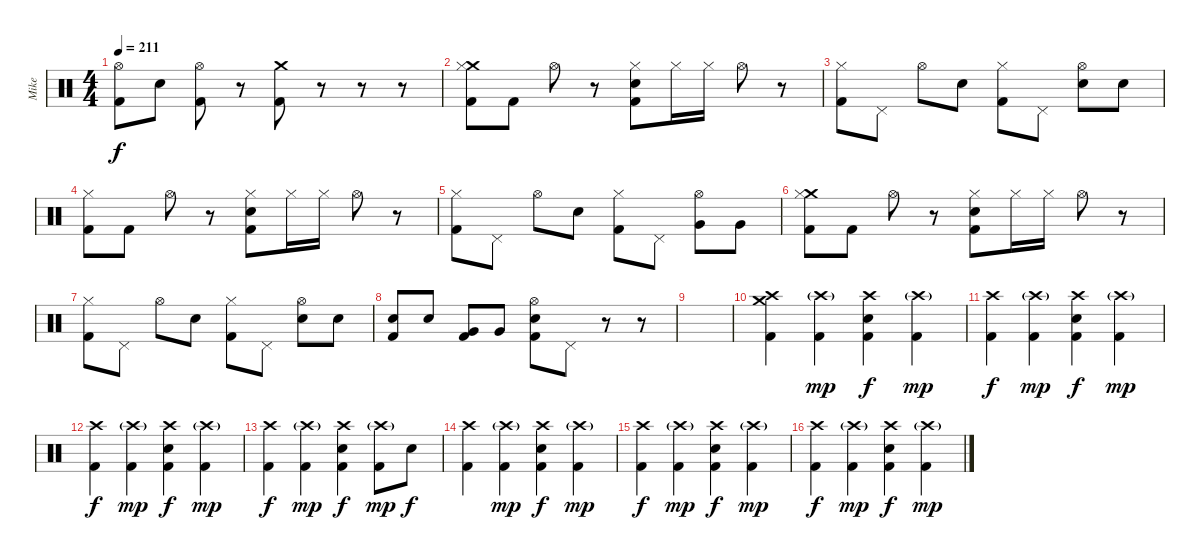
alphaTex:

\track ("Mike" "Mike") {instrument percussion}
\staff {score}
\articulation defaults
\ts (4 4)
\tempo 211
\clef neutral
\ks c
("Hi-Hat (open)" "Kick (hit) 2").8{dy f} "Electric Snare (hit)".8 ("Hi-Hat (open)" "Kick (hit) 2").8 r.8 ("Crash medium (hit)" "Kick (hit) 2").8 r.8 r.8 r.8 |
("Crash medium (hit)" "Hi-Hat (closed)" "Kick (hit) 2").8 "Kick (hit) 2".8 "Hi-Hat (open)".8 r.8 ("Hi-Hat (closed)" "Electric Snare (hit)" "Kick (hit) 2").8 "Hi-Hat (closed)".16 "Hi-Hat (closed)".16 "Hi-Hat (open)".8 r.8 |
("Hi-Hat (closed)" "Kick (hit) 2").8 "Pedal Hi-Hat (hit)".8 "Hi-Hat (open)".8 "Electric Snare (hit)".8 ("Hi-Hat (closed)" "Kick (hit) 2").8 "Pedal Hi-Hat (hit)".8 ("Hi-Hat (open)" "Electric Snare (hit)").8 "Electric Snare (hit)".8 |
("Hi-Hat (closed)" "Kick (hit) 2").8 "Kick (hit) 2".8 "Hi-Hat (open)".8 r.8 ("Hi-Hat (closed)" "Electric Snare (hit)" "Kick (hit) 2").8 "Hi-Hat (closed)".16 "Hi-Hat (closed)".16 "Hi-Hat (open)".8 r.8 |
("Hi-Hat (closed)" "Kick (hit) 2").8 "Pedal Hi-Hat (hit)".8 "Hi-Hat (open)".8 "Electric Snare (hit)".8 ("Hi-Hat (closed)" "Kick (hit) 2").8 "Pedal Hi-Hat (hit)".8 ("Hi-Hat (open)" "Very Low Tom (hit)").8 "Very Low Tom (hit)".8 |
("Crash medium (hit)" "Hi-Hat (closed)" "Kick (hit) 2").8 "Kick (hit) 2".8 "Hi-Hat (open)".8 r.8 ("Hi-Hat (closed)" "Electric Snare (hit)" "Kick (hit) 2").8 "Hi-Hat (closed)".16 "Hi-Hat (closed)".16 "Hi-Hat (open)".8 r.8 |
("Hi-Hat (closed)" "Kick (hit) 2").8 "Pedal Hi-Hat (hit)".8 "Hi-Hat (open)".8 "Electric Snare (hit)".8 ("Hi-Hat (closed)" "Kick (hit) 2").8 "Pedal Hi-Hat (hit)".8 ("Hi-Hat (open)" "Electric Snare (hit)").8 "Electric Snare (hit)".8 |
("Electric Snare (hit)" "Kick (hit) 2").8 "Electric Snare (hit)".8 ("Very Low Tom (hit)" "Kick (hit) 2").8 "Very Low Tom (hit)".8 ("Hi-Hat (open)" "Electric Snare (hit)" "Kick (hit) 2").8 "Pedal Hi-Hat (hit)".8 r.8 r.8 |
|
("Crash high (hit)" "Crash medium (hit)" "Kick (hit) 2").4 ("Crash high (hit)"{g} "Kick (hit) 2").4{dy mp} ("Crash high (hit)" "Electric Snare (hit)" "Kick (hit) 2").4{dy f} ("Crash high (hit)"{g} "Kick (hit) 2").4{dy mp} |
("Crash high (hit)" "Kick (hit) 2").4{dy f} ("Crash high (hit)"{g} "Kick (hit) 2").4{dy mp} ("Crash high (hit)" "Electric Snare (hit)" "Kick (hit) 2").4{dy f} ("Crash high (hit)"{g} "Kick (hit) 2").4{dy mp} |
("Crash high (hit)" "Kick (hit) 2").4{dy f} ("Crash high (hit)"{g} "Kick (hit) 2").4{dy mp} ("Crash high (hit)" "Electric Snare (hit)" "Kick (hit) 2").4{dy f} ("Crash high (hit)"{g} "Kick (hit) 2").4{dy mp} |
("Crash high (hit)" "Kick (hit) 2").4{dy f} ("Crash high (hit)"{g} "Kick (hit) 2").4{dy mp} ("Crash high (hit)" "Electric Snare (hit)" "Kick (hit) 2").4{dy f} ("Crash high (hit)"{g} "Kick (hit) 2").8{dy mp} "Electric Snare (hit)".8{dy f} |
("Crash high (hit)" "Kick (hit) 2").4 ("Crash high (hit)"{g} "Kick (hit) 2").4{dy mp} ("Crash high (hit)" "Electric Snare (hit)" "Kick (hit) 2").4{dy f} ("Crash high (hit)"{g} "Kick (hit) 2").4{dy mp} |
("Crash high (hit)" "Kick (hit) 2").4{dy f} ("Crash high (hit)"{g} "Kick (hit) 2").4{dy mp} ("Crash high (hit)" "Electric Snare (hit)" "Kick (hit) 2").4{dy f} ("Crash high (hit)"{g} "Kick (hit) 2").4{dy mp} |
("Crash high (hit)" "Kick (hit) 2").4{dy f} ("Crash high (hit)"{g} "Kick (hit) 2").4{dy mp} ("Crash high (hit)" "Electric Snare (hit)" "Kick (hit) 2").4{dy f} ("Crash high (hit)"{g} "Kick (hit) 2").4{dy mp}
